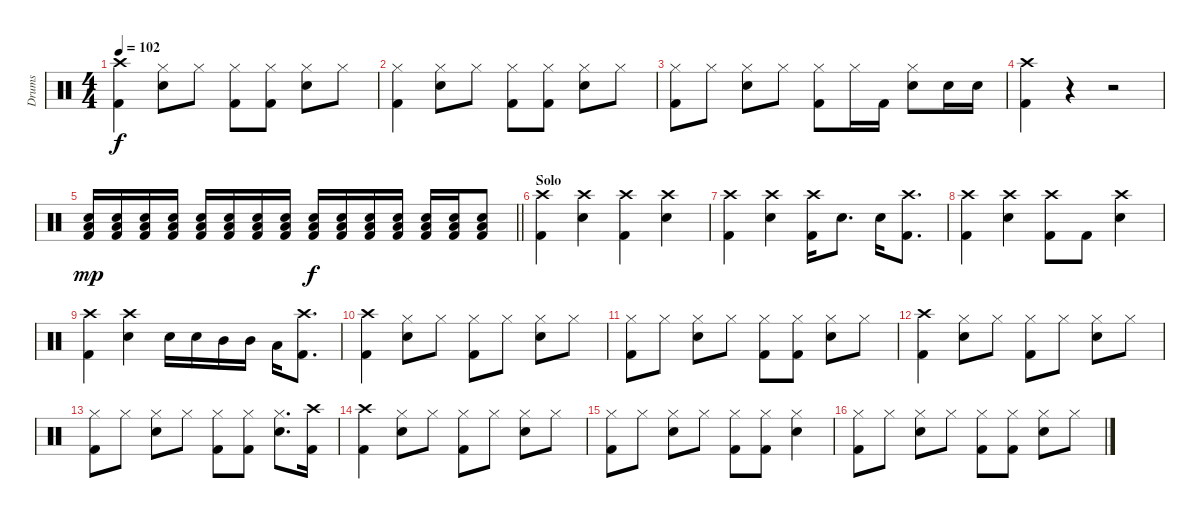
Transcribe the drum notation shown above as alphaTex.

\track ("Drums" "Drums") {instrument percussion}
\staff {score}
\articulation defaults
\ts (4 4)
\tempo 102
\clef neutral
\ks c
("Crash high (hit)" "Kick (hit) 2").4{dy f} ("Hi-Hat (closed)" "Snare (hit) 2").8 "Hi-Hat (closed)".8 ("Hi-Hat (closed)" "Kick (hit) 2").8 ("Hi-Hat (closed)" "Kick (hit) 2").8 ("Hi-Hat (closed)" "Snare (hit) 2").8 "Hi-Hat (closed)".8 |
("Hi-Hat (closed)" "Kick (hit) 2").4 ("Hi-Hat (closed)" "Snare (hit) 2").8 "Hi-Hat (closed)".8 ("Hi-Hat (closed)" "Kick (hit) 2").8 ("Hi-Hat (closed)" "Kick (hit) 2").8 ("Hi-Hat (closed)" "Snare (hit) 2").8 "Hi-Hat (closed)".8 |
("Hi-Hat (closed)" "Kick (hit) 2").8 "Hi-Hat (closed)".8 ("Hi-Hat (closed)" "Snare (hit) 2").8 "Hi-Hat (closed)".8 ("Hi-Hat (closed)" "Kick (hit) 2").8 "Hi-Hat (closed)".16 "Kick (hit) 2".16 ("Hi-Hat (closed)" "Snare (hit) 2").8 "Snare (hit) 2".16 "Snare (hit) 2".16 |
("Crash high (hit)" "Kick (hit) 2").4 r.4 r.2 |
\barLineRight lightlight
("Kick (hit) 2" "Snare (hit) 2" "Low Tom (hit)").16{dy mp} ("Kick (hit) 2" "Snare (hit) 2" "Low Tom (hit)").16 ("Kick (hit) 2" "Snare (hit) 2" "Low Tom (hit)").16 ("Kick (hit) 2" "Snare (hit) 2" "Low Tom (hit)").16 ("Kick (hit) 2" "Snare (hit) 2" "Low Tom (hit)").16 ("Kick (hit) 2" "Snare (hit) 2" "Low Tom (hit)").16 ("Kick (hit) 2" "Snare (hit) 2" "Low Tom (hit)").16 ("Kick (hit) 2" "Snare (hit) 2" "Low Tom (hit)").16 ("Kick (hit) 2" "Snare (hit) 2" "Low Tom (hit)").16{dy f} ("Kick (hit) 2" "Snare (hit) 2" "Low Tom (hit)").16 ("Kick (hit) 2" "Snare (hit) 2" "Low Tom (hit)").16 ("Kick (hit) 2" "Snare (hit) 2" "Low Tom (hit)").16 ("Kick (hit) 2" "Snare (hit) 2" "Low Tom (hit)").16 ("Kick (hit) 2" "Snare (hit) 2" "Low Tom (hit)").16 ("Kick (hit) 2" "Snare (hit) 2" "Low Tom (hit)").8 |
\section ("" "Solo")
("Crash high (hit)" "Kick (hit) 2").4 ("Crash high (hit)" "Snare (hit) 2").4 ("Crash high (hit)" "Kick (hit) 2").4 ("Crash high (hit)" "Snare (hit) 2").4 |
("Crash high (hit)" "Kick (hit) 2").4 ("Crash high (hit)" "Snare (hit) 2").4 ("Crash high (hit)" "Kick (hit) 2").16 "Snare (hit) 2".8{d} "Snare (hit) 2".16 ("Crash high (hit)" "Kick (hit) 2").8{d} |
("Crash high (hit)" "Kick (hit) 2").4 ("Crash high (hit)" "Snare (hit) 2").4 ("Crash high (hit)" "Kick (hit) 2").8 "Kick (hit) 2".8 ("Crash high (hit)" "Snare (hit) 2").4 |
("Crash high (hit)" "Kick (hit) 2").4 ("Crash high (hit)" "Snare (hit) 2").4 "Snare (hit) 2".16 "Snare (hit) 2".16 "Mid Tom (hit)".16 "Mid Tom (hit)".16 "Low Tom (hit)".16 ("Crash high (hit)" "Kick (hit) 2").8{d} |
("Crash high (hit)" "Kick (hit) 2").4 ("Hi-Hat (closed)" "Snare (hit) 2").8 "Hi-Hat (closed)".8 ("Hi-Hat (closed)" "Kick (hit) 2").8 "Hi-Hat (closed)".8 ("Hi-Hat (closed)" "Snare (hit) 2").8 "Hi-Hat (closed)".8 |
("Hi-Hat (closed)" "Kick (hit) 2").8 "Hi-Hat (closed)".8 ("Hi-Hat (closed)" "Snare (hit) 2").8 "Hi-Hat (closed)".8 ("Hi-Hat (closed)" "Kick (hit) 2").8 ("Hi-Hat (closed)" "Kick (hit) 2").8 ("Hi-Hat (closed)" "Snare (hit) 2").8 "Hi-Hat (closed)".8 |
("Crash high (hit)" "Kick (hit) 2").4 ("Hi-Hat (closed)" "Snare (hit) 2").8 "Hi-Hat (closed)".8 ("Hi-Hat (closed)" "Kick (hit) 2").8 "Hi-Hat (closed)".8 ("Hi-Hat (closed)" "Snare (hit) 2").8 "Hi-Hat (closed)".8 |
("Hi-Hat (closed)" "Kick (hit) 2").8 "Hi-Hat (closed)".8 ("Hi-Hat (closed)" "Snare (hit) 2").8 "Hi-Hat (closed)".8 ("Hi-Hat (closed)" "Kick (hit) 2").8 ("Hi-Hat (closed)" "Kick (hit) 2").8 ("Hi-Hat (closed)" "Snare (hit) 2").8{d} ("Crash high (hit)" "Kick (hit) 2").16 |
("Crash high (hit)" "Kick (hit) 2").4 ("Hi-Hat (closed)" "Snare (hit) 2").8 "Hi-Hat (closed)".8 ("Hi-Hat (closed)" "Kick (hit) 2").8 "Hi-Hat (closed)".8 ("Hi-Hat (closed)" "Snare (hit) 2").8 "Hi-Hat (closed)".8 |
("Hi-Hat (closed)" "Kick (hit) 2").8 "Hi-Hat (closed)".8 ("Hi-Hat (closed)" "Snare (hit) 2").8 "Hi-Hat (closed)".8 ("Hi-Hat (closed)" "Kick (hit) 2").8 ("Hi-Hat (closed)" "Kick (hit) 2").8 ("Hi-Hat (closed)" "Snare (hit) 2").4 |
("Hi-Hat (closed)" "Kick (hit) 2").8 "Hi-Hat (closed)".8 ("Hi-Hat (closed)" "Snare (hit) 2").8 "Hi-Hat (closed)".8 ("Hi-Hat (closed)" "Kick (hit) 2").8 ("Hi-Hat (closed)" "Kick (hit) 2").8 ("Hi-Hat (closed)" "Snare (hit) 2").8 "Hi-Hat (closed)".8
